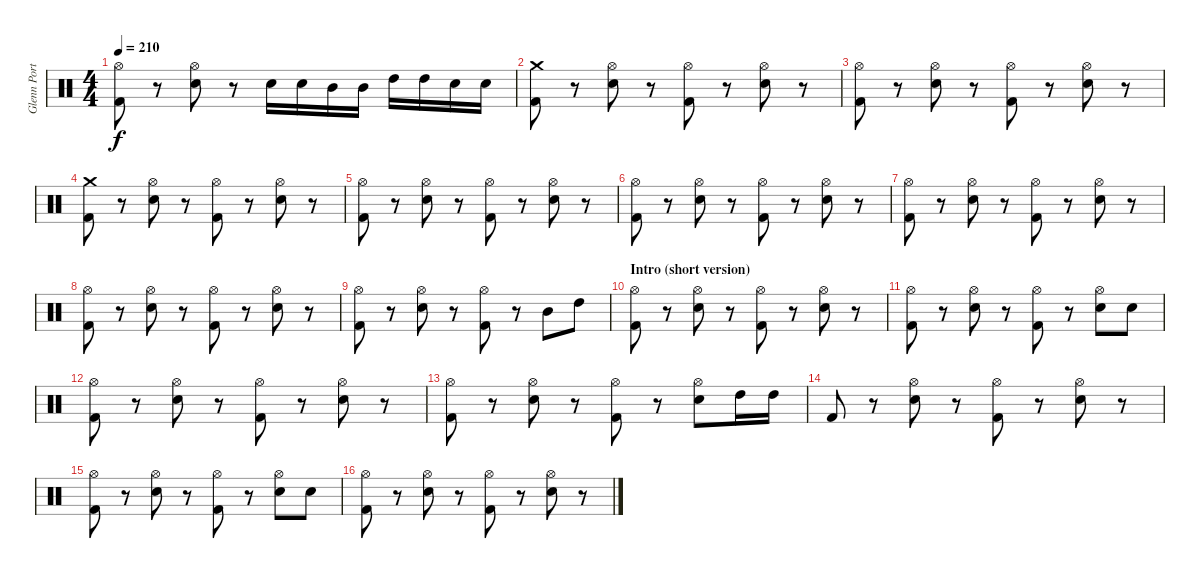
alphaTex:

\track ("Glenn Porter - Drums" "Glenn Port") {instrument percussion}
\staff {score}
\articulation defaults
\ts (4 4)
\tempo 210
\clef neutral
\ks c
("Hi-Hat (open)" "Kick (hit) 2").8{dy f} r.8 ("Hi-Hat (open)" "Electric Snare (hit)").8 r.8 "Electric Snare (hit)".16 "Electric Snare (hit)".16 "Mid Tom (hit)".16 "Mid Tom (hit)".16 "High Tom (hit)".16 "High Tom (hit)".16 "Electric Snare (hit)".16 "Electric Snare (hit)".16 |
("Crash medium (hit)" "Kick (hit) 2").8 r.8 ("Hi-Hat (open)" "Electric Snare (hit)").8 r.8 ("Hi-Hat (open)" "Kick (hit) 2").8 r.8 ("Hi-Hat (open)" "Electric Snare (hit)").8 r.8 |
("Hi-Hat (open)" "Kick (hit) 2").8 r.8 ("Hi-Hat (open)" "Electric Snare (hit)").8 r.8 ("Hi-Hat (open)" "Kick (hit) 2").8 r.8 ("Hi-Hat (open)" "Electric Snare (hit)").8 r.8 |
("Crash medium (hit)" "Kick (hit) 2").8 r.8 ("Hi-Hat (open)" "Electric Snare (hit)").8 r.8 ("Hi-Hat (open)" "Kick (hit) 2").8 r.8 ("Hi-Hat (open)" "Electric Snare (hit)").8 r.8 |
("Hi-Hat (open)" "Kick (hit) 2").8 r.8 ("Hi-Hat (open)" "Electric Snare (hit)").8 r.8 ("Hi-Hat (open)" "Kick (hit) 2").8 r.8 ("Hi-Hat (open)" "Electric Snare (hit)").8 r.8 |
("Hi-Hat (open)" "Kick (hit) 2").8 r.8 ("Hi-Hat (open)" "Electric Snare (hit)").8 r.8 ("Hi-Hat (open)" "Kick (hit) 2").8 r.8 ("Hi-Hat (open)" "Electric Snare (hit)").8 r.8 |
("Hi-Hat (open)" "Kick (hit) 2").8 r.8 ("Hi-Hat (open)" "Electric Snare (hit)").8 r.8 ("Hi-Hat (open)" "Kick (hit) 2").8 r.8 ("Hi-Hat (open)" "Electric Snare (hit)").8 r.8 |
("Hi-Hat (open)" "Kick (hit) 2").8 r.8 ("Hi-Hat (open)" "Electric Snare (hit)").8 r.8 ("Hi-Hat (open)" "Kick (hit) 2").8 r.8 ("Hi-Hat (open)" "Electric Snare (hit)").8 r.8 |
("Hi-Hat (open)" "Kick (hit) 2").8 r.8 ("Hi-Hat (open)" "Electric Snare (hit)").8 r.8 ("Hi-Hat (open)" "Kick (hit) 2").8 r.8 "Mid Tom (hit)".8 "High Tom (hit)".8 |
\section ("" "Intro (short version)")
("Hi-Hat (open)" "Kick (hit) 2").8 r.8 ("Hi-Hat (open)" "Electric Snare (hit)").8 r.8 ("Hi-Hat (open)" "Kick (hit) 2").8 r.8 ("Hi-Hat (open)" "Electric Snare (hit)").8 r.8 |
("Hi-Hat (open)" "Kick (hit) 2").8 r.8 ("Hi-Hat (open)" "Electric Snare (hit)").8 r.8 ("Hi-Hat (open)" "Kick (hit) 2").8 r.8 ("Hi-Hat (open)" "Electric Snare (hit)").8 "Electric Snare (hit)".8 |
("Hi-Hat (open)" "Kick (hit) 2").8 r.8 ("Hi-Hat (open)" "Electric Snare (hit)").8 r.8 ("Hi-Hat (open)" "Kick (hit) 2").8 r.8 ("Hi-Hat (open)" "Electric Snare (hit)").8 r.8 |
("Hi-Hat (open)" "Kick (hit) 2").8 r.8 ("Hi-Hat (open)" "Electric Snare (hit)").8 r.8 ("Hi-Hat (open)" "Kick (hit) 2").8 r.8 ("Hi-Hat (open)" "Electric Snare (hit)").8 "High Tom (hit)".16 "High Tom (hit)".16 |
"Kick (hit) 2".8 r.8 ("Hi-Hat (open)" "Electric Snare (hit)").8 r.8 ("Hi-Hat (open)" "Kick (hit) 2").8 r.8 ("Hi-Hat (open)" "Electric Snare (hit)").8 r.8 |
("Hi-Hat (open)" "Kick (hit) 2").8 r.8 ("Hi-Hat (open)" "Electric Snare (hit)").8 r.8 ("Hi-Hat (open)" "Kick (hit) 2").8 r.8 ("Hi-Hat (open)" "Electric Snare (hit)").8 "Electric Snare (hit)".8 |
("Hi-Hat (open)" "Kick (hit) 2").8 r.8 ("Hi-Hat (open)" "Electric Snare (hit)").8 r.8 ("Hi-Hat (open)" "Kick (hit) 2").8 r.8 ("Hi-Hat (open)" "Electric Snare (hit)").8 r.8
